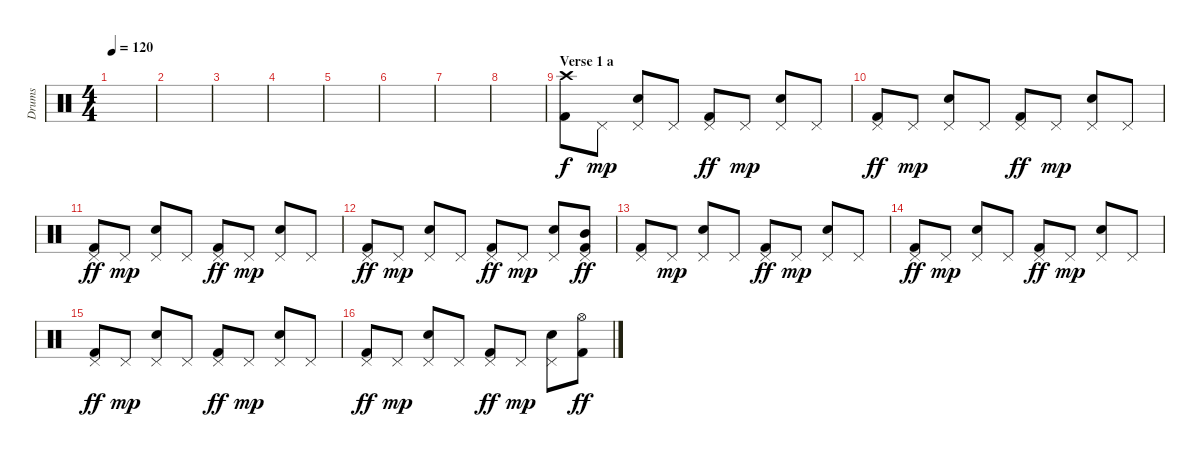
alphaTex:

\track ("Drums" "Drums") {instrument percussion}
\staff {score}
\articulation defaults
\ts (4 4)
\tempo 120
\clef neutral
\ks c
|
|
|
|
|
|
|
|
\section ("" "Verse 1 a")
("Crash high (hit)" "Kick (hit) 2").8 "Pedal Hi-Hat (hit)".8{dy mp} ("Pedal Hi-Hat (hit)" "Electric Snare (hit)").8 "Pedal Hi-Hat (hit)".8 ("Pedal Hi-Hat (hit)" "Kick (hit) 2").8{dy ff} "Pedal Hi-Hat (hit)".8{dy mp} ("Pedal Hi-Hat (hit)" "Electric Snare (hit)").8 "Pedal Hi-Hat (hit)".8 |
("Pedal Hi-Hat (hit)" "Kick (hit) 2").8{dy ff} "Pedal Hi-Hat (hit)".8{dy mp} ("Pedal Hi-Hat (hit)" "Electric Snare (hit)").8 "Pedal Hi-Hat (hit)".8 ("Pedal Hi-Hat (hit)" "Kick (hit) 2").8{dy ff} "Pedal Hi-Hat (hit)".8{dy mp} ("Pedal Hi-Hat (hit)" "Electric Snare (hit)").8 "Pedal Hi-Hat (hit)".8 |
("Pedal Hi-Hat (hit)" "Kick (hit) 2").8{dy ff} "Pedal Hi-Hat (hit)".8{dy mp} ("Pedal Hi-Hat (hit)" "Electric Snare (hit)").8 "Pedal Hi-Hat (hit)".8 ("Pedal Hi-Hat (hit)" "Kick (hit) 2").8{dy ff} "Pedal Hi-Hat (hit)".8{dy mp} ("Pedal Hi-Hat (hit)" "Electric Snare (hit)").8 "Pedal Hi-Hat (hit)".8 |
("Pedal Hi-Hat (hit)" "Kick (hit) 2").8{dy ff} "Pedal Hi-Hat (hit)".8{dy mp} ("Pedal Hi-Hat (hit)" "Electric Snare (hit)").8 "Pedal Hi-Hat (hit)".8 ("Pedal Hi-Hat (hit)" "Kick (hit) 2").8{dy ff} "Pedal Hi-Hat (hit)".8{dy mp} ("Pedal Hi-Hat (hit)" "Electric Snare (hit)").8 ("Pedal Hi-Hat (hit)" "Mid Tom (hit)" "Kick (hit) 2").8{dy ff} |
("Pedal Hi-Hat (hit)" "Kick (hit) 2").8 "Pedal Hi-Hat (hit)".8{dy mp} ("Pedal Hi-Hat (hit)" "Electric Snare (hit)").8 "Pedal Hi-Hat (hit)".8 ("Pedal Hi-Hat (hit)" "Kick (hit) 2").8{dy ff} "Pedal Hi-Hat (hit)".8{dy mp} ("Pedal Hi-Hat (hit)" "Electric Snare (hit)").8 "Pedal Hi-Hat (hit)".8 |
("Pedal Hi-Hat (hit)" "Kick (hit) 2").8{dy ff} "Pedal Hi-Hat (hit)".8{dy mp} ("Pedal Hi-Hat (hit)" "Electric Snare (hit)").8 "Pedal Hi-Hat (hit)".8 ("Pedal Hi-Hat (hit)" "Kick (hit) 2").8{dy ff} "Pedal Hi-Hat (hit)".8{dy mp} ("Pedal Hi-Hat (hit)" "Electric Snare (hit)").8 "Pedal Hi-Hat (hit)".8 |
("Pedal Hi-Hat (hit)" "Kick (hit) 2").8{dy ff} "Pedal Hi-Hat (hit)".8{dy mp} ("Pedal Hi-Hat (hit)" "Electric Snare (hit)").8 "Pedal Hi-Hat (hit)".8 ("Pedal Hi-Hat (hit)" "Kick (hit) 2").8{dy ff} "Pedal Hi-Hat (hit)".8{dy mp} ("Pedal Hi-Hat (hit)" "Electric Snare (hit)").8 "Pedal Hi-Hat (hit)".8 |
("Pedal Hi-Hat (hit)" "Kick (hit) 2").8{dy ff} "Pedal Hi-Hat (hit)".8{dy mp} ("Pedal Hi-Hat (hit)" "Electric Snare (hit)").8 "Pedal Hi-Hat (hit)".8 ("Pedal Hi-Hat (hit)" "Kick (hit) 2").8{dy ff} "Pedal Hi-Hat (hit)".8{dy mp} ("Pedal Hi-Hat (hit)" "Electric Snare (hit)").8 ("Hi-Hat (open)" "Kick (hit) 2").8{dy ff}
